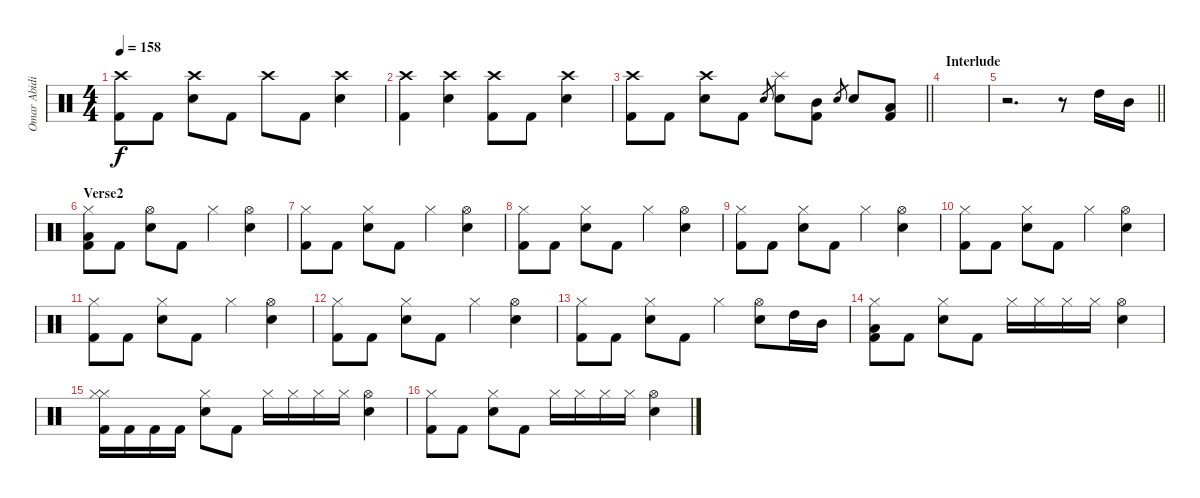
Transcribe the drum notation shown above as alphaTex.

\track ("Omar Abidi" "Omar Abidi") {instrument percussion}
\staff {score}
\articulation defaults
\ts (4 4)
\tempo 158
\clef neutral
\ks c
("Crash high (hit)" "Kick (hit) 2").8{dy f} "Kick (hit) 2".8 ("Crash high (hit)" "Snare (hit) 2").8 "Kick (hit) 2".8 "Crash high (hit)".8 "Kick (hit) 2".8 ("Crash high (hit)" "Snare (hit) 2").4 |
("Crash high (hit)" "Kick (hit) 2").4 ("Crash high (hit)" "Snare (hit) 2").4 ("Crash high (hit)" "Kick (hit) 2").8 "Kick (hit) 2".8 ("Crash high (hit)" "Snare (hit) 2").4 |
\barLineRight lightlight
("Crash high (hit)" "Kick (hit) 2").8 "Kick (hit) 2".8 ("Crash high (hit)" "Snare (hit) 2").8 "Kick (hit) 2".8 "Snare (hit) 2".8{gr} ("Splash (hit)" "Snare (hit) 2").8 ("Mid Tom (hit)" "Kick (hit) 2").8 "Snare (hit) 2".8{gr} "Snare (hit) 2".8 ("Low Tom (hit)" "Kick (hit) 2").8 |
\section ("" "Interlude")
|
\barLineRight lightlight
r.2{d} r.8 "High Tom (hit)".16 "Mid Tom (hit)".16 |
\section ("" "Verse2")
("Hi-Hat (closed)" "Low Tom (hit)" "Kick (hit) 2").8 "Kick (hit) 2".8 ("Hi-Hat (open)" "Snare (hit) 2").8 "Kick (hit) 2".8 "Hi-Hat (closed)".4 ("Hi-Hat (open)" "Snare (hit) 2").4 |
("Hi-Hat (closed)" "Kick (hit) 2").8 "Kick (hit) 2".8 ("Hi-Hat (closed)" "Snare (hit) 2").8 "Kick (hit) 2".8 "Hi-Hat (closed)".4 ("Hi-Hat (open)" "Snare (hit) 2").4 |
("Hi-Hat (closed)" "Kick (hit) 2").8 "Kick (hit) 2".8 ("Hi-Hat (closed)" "Snare (hit) 2").8 "Kick (hit) 2".8 "Hi-Hat (closed)".4 ("Hi-Hat (open)" "Snare (hit) 2").4 |
("Hi-Hat (closed)" "Kick (hit) 2").8 "Kick (hit) 2".8 ("Hi-Hat (closed)" "Snare (hit) 2").8 "Kick (hit) 2".8 "Hi-Hat (closed)".4 ("Hi-Hat (open)" "Snare (hit) 2").4 |
("Hi-Hat (closed)" "Kick (hit) 2").8 "Kick (hit) 2".8 ("Hi-Hat (closed)" "Snare (hit) 2").8 "Kick (hit) 2".8 "Hi-Hat (closed)".4 ("Hi-Hat (open)" "Snare (hit) 2").4 |
("Hi-Hat (closed)" "Kick (hit) 2").8 "Kick (hit) 2".8 ("Hi-Hat (closed)" "Snare (hit) 2").8 "Kick (hit) 2".8 "Hi-Hat (closed)".4 ("Hi-Hat (open)" "Snare (hit) 2").4 |
("Hi-Hat (closed)" "Kick (hit) 2").8 "Kick (hit) 2".8 ("Hi-Hat (closed)" "Snare (hit) 2").8 "Kick (hit) 2".8 "Hi-Hat (closed)".4 ("Hi-Hat (open)" "Snare (hit) 2").4 |
("Hi-Hat (closed)" "Kick (hit) 2").8 "Kick (hit) 2".8 ("Hi-Hat (closed)" "Snare (hit) 2").8 "Kick (hit) 2".8 "Hi-Hat (closed)".4 ("Hi-Hat (open)" "Snare (hit) 2").8 "High Tom (hit)".16 "Mid Tom (hit)".16 |
("Hi-Hat (closed)" "Low Tom (hit)" "Kick (hit) 2").8 "Kick (hit) 2".8 ("Hi-Hat (closed)" "Snare (hit) 2").8 "Kick (hit) 2".8 "Hi-Hat (closed)".16 "Hi-Hat (closed)".16 "Hi-Hat (closed)".16 "Hi-Hat (closed)".16 ("Hi-Hat (open)" "Snare (hit) 2").4 |
("Hi-Hat (closed)" "Hi-Hat (closed)" "Kick (hit) 2").16 "Kick (hit) 2".16 "Kick (hit) 2".16 "Kick (hit) 2".16 ("Hi-Hat (closed)" "Snare (hit) 2").8 "Kick (hit) 2".8 "Hi-Hat (closed)".16 "Hi-Hat (closed)".16 "Hi-Hat (closed)".16 "Hi-Hat (closed)".16 ("Hi-Hat (open)" "Snare (hit) 2").4 |
("Hi-Hat (closed)" "Kick (hit) 2").8 "Kick (hit) 2".8 ("Hi-Hat (closed)" "Snare (hit) 2").8 "Kick (hit) 2".8 "Hi-Hat (closed)".16 "Hi-Hat (closed)".16 "Hi-Hat (closed)".16 "Hi-Hat (closed)".16 ("Hi-Hat (open)" "Snare (hit) 2").4
